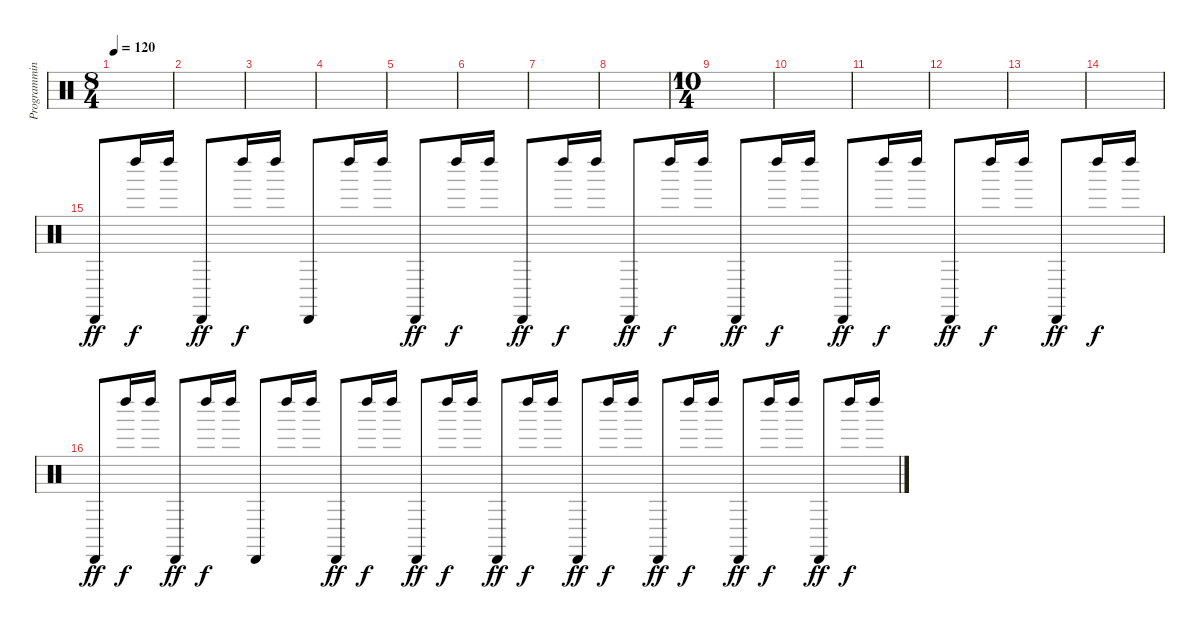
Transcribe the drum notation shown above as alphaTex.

\track ("Programming" "Programmin") {instrument percussion}
\staff {score}
\articulation defaults
\ts (8 4)
\section ("" "")
\tempo 120
\clef neutral
\ks c
|
|
|
|
|
|
|
|
\ts (10 4)
|
|
|
|
\section ("" "")
|
|
"Cabasa (hit)".8{dy ff} "Left Maraca (hit)".16{dy f} "Left Maraca (hit)".16 "Cabasa (hit)".8{dy ff} "Left Maraca (hit)".16{dy f} "Left Maraca (hit)".16 "Cabasa (hit)".8 "Left Maraca (hit)".16 "Left Maraca (hit)".16 "Cabasa (hit)".8{dy ff} "Left Maraca (hit)".16{dy f} "Left Maraca (hit)".16 "Cabasa (hit)".8{dy ff} "Left Maraca (hit)".16{dy f} "Left Maraca (hit)".16 "Cabasa (hit)".8{dy ff} "Left Maraca (hit)".16{dy f} "Left Maraca (hit)".16 "Cabasa (hit)".8{dy ff} "Left Maraca (hit)".16{dy f} "Left Maraca (hit)".16 "Cabasa (hit)".8{dy ff} "Left Maraca (hit)".16{dy f} "Left Maraca (hit)".16 "Cabasa (hit)".8{dy ff} "Left Maraca (hit)".16{dy f} "Left Maraca (hit)".16 "Cabasa (hit)".8{dy ff} "Left Maraca (hit)".16{dy f} "Left Maraca (hit)".16 |
"Cabasa (hit)".8{dy ff} "Left Maraca (hit)".16{dy f} "Left Maraca (hit)".16 "Cabasa (hit)".8{dy ff} "Left Maraca (hit)".16{dy f} "Left Maraca (hit)".16 "Cabasa (hit)".8 "Left Maraca (hit)".16 "Left Maraca (hit)".16 "Cabasa (hit)".8{dy ff} "Left Maraca (hit)".16{dy f} "Left Maraca (hit)".16 "Cabasa (hit)".8{dy ff} "Left Maraca (hit)".16{dy f} "Left Maraca (hit)".16 "Cabasa (hit)".8{dy ff} "Left Maraca (hit)".16{dy f} "Left Maraca (hit)".16 "Cabasa (hit)".8{dy ff} "Left Maraca (hit)".16{dy f} "Left Maraca (hit)".16 "Cabasa (hit)".8{dy ff} "Left Maraca (hit)".16{dy f} "Left Maraca (hit)".16 "Cabasa (hit)".8{dy ff} "Left Maraca (hit)".16{dy f} "Left Maraca (hit)".16 "Cabasa (hit)".8{dy ff} "Left Maraca (hit)".16{dy f} "Left Maraca (hit)".16
